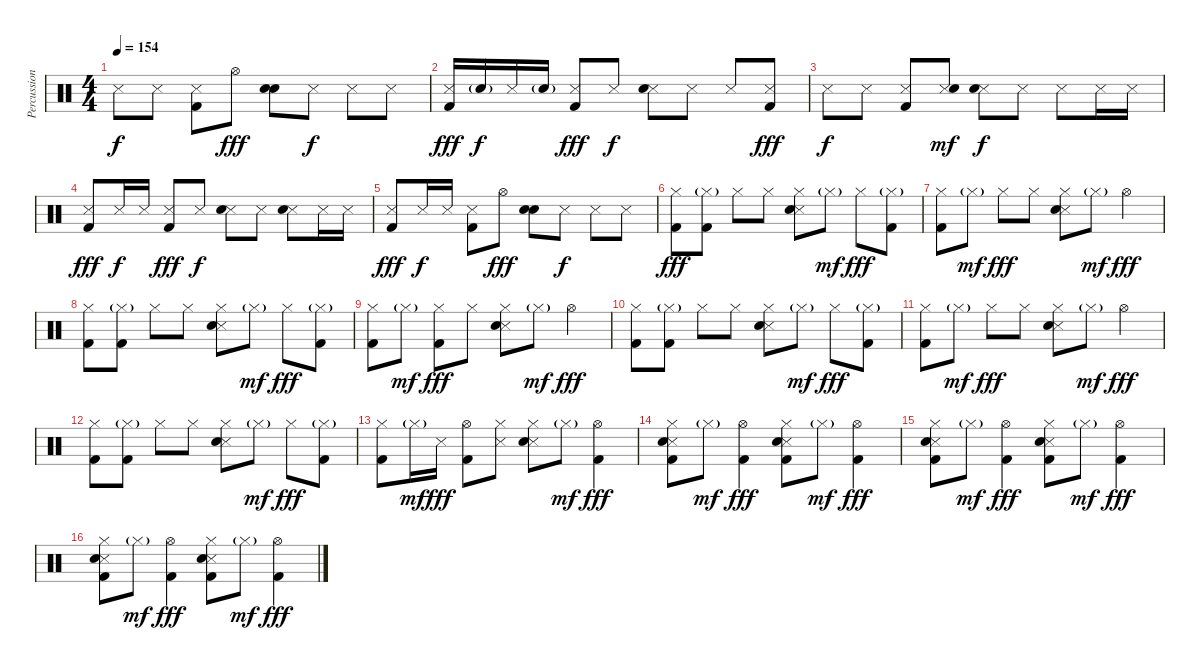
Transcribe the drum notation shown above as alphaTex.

\track ("Percussion" "Percussion") {instrument percussion}
\staff {score}
\articulation defaults
\ts (4 4)
\tempo 154
\clef neutral
\ks c "Snare (side stick) 3".8{dy f} "Snare (side stick) 3".8
("Snare (side stick) 3" "Kick (hit) 2").8 "Hi-Hat (open)".8{dy fff} ("Snare (hit) 2" "Snare (hit) 2").8{bd 30} "Snare (side stick) 3".8{dy f} "Snare (side stick) 3".8 "Snare (side stick) 3".8 |
("Snare (side stick) 3" "Kick (hit) 2").16{dy fff} "Snare (hit) 2"{g}.16{dy f} "Snare (side stick) 3".16 "Snare (hit) 2"{g}.16 ("Snare (side stick) 3" "Kick (hit) 2").8{dy fff} "Snare (side stick) 3".8{dy f} ("Snare (side stick) 3" "Electric Snare (hit)").8 "Snare (side stick) 3".8 "Snare (side stick) 3".8 ("Snare (side stick) 3" "Kick (hit) 2").8{dy fff} |
"Snare (side stick) 3".8{dy f} "Snare (side stick) 3".8 ("Snare (side stick) 3" "Kick (hit) 2").8 ("Snare (side stick) 3" "Snare (hit) 2").8{dy mf} ("Snare (side stick) 3" "Electric Snare (hit)").8{dy f} "Snare (side stick) 3".8 "Snare (side stick) 3".8 "Snare (side stick) 3".16 "Snare (side stick) 3".16 |
("Snare (side stick) 3" "Kick (hit) 2").8{dy fff} "Snare (side stick) 3".16{dy f} "Snare (side stick) 3".16 ("Snare (side stick) 3" "Kick (hit) 2").8{dy fff} "Snare (side stick) 3".8{dy f} ("Snare (side stick) 3" "Electric Snare (hit)").8 "Snare (side stick) 3".8 ("Snare (side stick) 3" "Electric Snare (hit)").8 "Snare (side stick) 3".16 "Snare (side stick) 3".16 |
("Snare (side stick) 3" "Kick (hit) 2").8{dy fff} "Snare (side stick) 3".16{dy f} "Snare (side stick) 3".16 ("Snare (side stick) 3" "Kick (hit) 2").8 "Hi-Hat (open)".8{dy fff} ("Snare (hit) 2" "Snare (hit) 2").8{bd 30} "Snare (side stick) 3".8{dy f} "Snare (side stick) 3".8 "Snare (side stick) 3".8 |
("Hi-Hat (closed)" "Kick (hit) 2").8{dy fff} ("Hi-Hat (closed)"{g} "Kick (hit) 2").8 "Hi-Hat (closed)".8 "Hi-Hat (closed)".8 ("Hi-Hat (closed)" "Snare (side stick) 3" "Electric Snare (hit)").8 "Hi-Hat (closed)"{g}.8{dy mf} "Hi-Hat (closed)".8{dy fff} ("Hi-Hat (closed)"{g} "Kick (hit) 2").8 |
("Hi-Hat (closed)" "Kick (hit) 2").8 "Hi-Hat (closed)"{g}.8{dy mf} "Hi-Hat (closed)".8{dy fff} "Hi-Hat (closed)".8 ("Hi-Hat (closed)" "Snare (side stick) 3" "Electric Snare (hit)").8 "Hi-Hat (closed)"{g}.8{dy mf} "Hi-Hat (open)".4{dy fff} |
("Hi-Hat (closed)" "Kick (hit) 2").8 ("Hi-Hat (closed)"{g} "Kick (hit) 2").8 "Hi-Hat (closed)".8 "Hi-Hat (closed)".8 ("Hi-Hat (closed)" "Snare (side stick) 3" "Electric Snare (hit)").8 "Hi-Hat (closed)"{g}.8{dy mf} "Hi-Hat (closed)".8{dy fff} ("Hi-Hat (closed)"{g} "Kick (hit) 2").8 |
("Hi-Hat (closed)" "Kick (hit) 2").8 "Hi-Hat (closed)"{g}.8{dy mf} ("Hi-Hat (closed)" "Kick (hit) 2").8{dy fff} "Hi-Hat (closed)".8 ("Hi-Hat (closed)" "Snare (side stick) 3" "Electric Snare (hit)").8 "Hi-Hat (closed)"{g}.8{dy mf} "Hi-Hat (open)".4{dy fff} |
("Hi-Hat (closed)" "Kick (hit) 2").8 ("Hi-Hat (closed)"{g} "Kick (hit) 2").8 "Hi-Hat (closed)".8 "Hi-Hat (closed)".8 ("Hi-Hat (closed)" "Snare (side stick) 3" "Electric Snare (hit)").8 "Hi-Hat (closed)"{g}.8{dy mf} "Hi-Hat (closed)".8{dy fff} ("Hi-Hat (closed)"{g} "Kick (hit) 2").8 |
("Hi-Hat (closed)" "Kick (hit) 2").8 "Hi-Hat (closed)"{g}.8{dy mf} "Hi-Hat (closed)".8{dy fff} "Hi-Hat (closed)".8 ("Hi-Hat (closed)" "Snare (side stick) 3" "Electric Snare (hit)").8 "Hi-Hat (closed)"{g}.8{dy mf} "Hi-Hat (open)".4{dy fff} |
("Hi-Hat (closed)" "Kick (hit) 2").8 ("Hi-Hat (closed)"{g} "Kick (hit) 2").8 "Hi-Hat (closed)".8 "Hi-Hat (closed)".8 ("Hi-Hat (closed)" "Snare (side stick) 3" "Electric Snare (hit)").8 "Hi-Hat (closed)"{g}.8{dy mf} "Hi-Hat (closed)".8{dy fff} ("Hi-Hat (closed)"{g} "Kick (hit) 2").8 |
("Hi-Hat (closed)" "Kick (hit) 2").8 "Hi-Hat (closed)"{g}.16{dy mf} "Snare (side stick) 3".16{dy fff} ("Hi-Hat (open)" "Kick (hit) 2").8 ("Hi-Hat (closed)" "Snare (side stick) 3").8 ("Hi-Hat (closed)" "Snare (side stick) 3" "Electric Snare (hit)").8 "Hi-Hat (closed)"{g}.8{dy mf} ("Hi-Hat (open)" "Kick (hit) 2").4{dy fff} |
("Hi-Hat (closed)" "Kick (hit) 2" "Snare (side stick) 3" "Electric Snare (hit)").8 "Hi-Hat (closed)"{g}.8{dy mf} ("Hi-Hat (open)" "Kick (hit) 2").4{dy fff} ("Hi-Hat (closed)" "Kick (hit) 2" "Snare (side stick) 3" "Electric Snare (hit)").8 "Hi-Hat (closed)"{g}.8{dy mf} ("Hi-Hat (open)" "Kick (hit) 2").4{dy fff} |
("Hi-Hat (closed)" "Kick (hit) 2" "Snare (side stick) 3" "Electric Snare (hit)").8 "Hi-Hat (closed)"{g}.8{dy mf} ("Hi-Hat (open)" "Kick (hit) 2").4{dy fff} ("Hi-Hat (closed)" "Kick (hit) 2" "Snare (side stick) 3" "Electric Snare (hit)").8 "Hi-Hat (closed)"{g}.8{dy mf} ("Hi-Hat (open)" "Kick (hit) 2").4{dy fff} |
("Hi-Hat (closed)" "Kick (hit) 2" "Snare (side stick) 3" "Electric Snare (hit)").8 "Hi-Hat (closed)"{g}.8{dy mf} ("Hi-Hat (open)" "Kick (hit) 2").4{dy fff} ("Hi-Hat (closed)" "Kick (hit) 2" "Snare (side stick) 3" "Electric Snare (hit)").8 "Hi-Hat (closed)"{g}.8{dy mf} ("Hi-Hat (open)" "Kick (hit) 2").4{dy fff}
